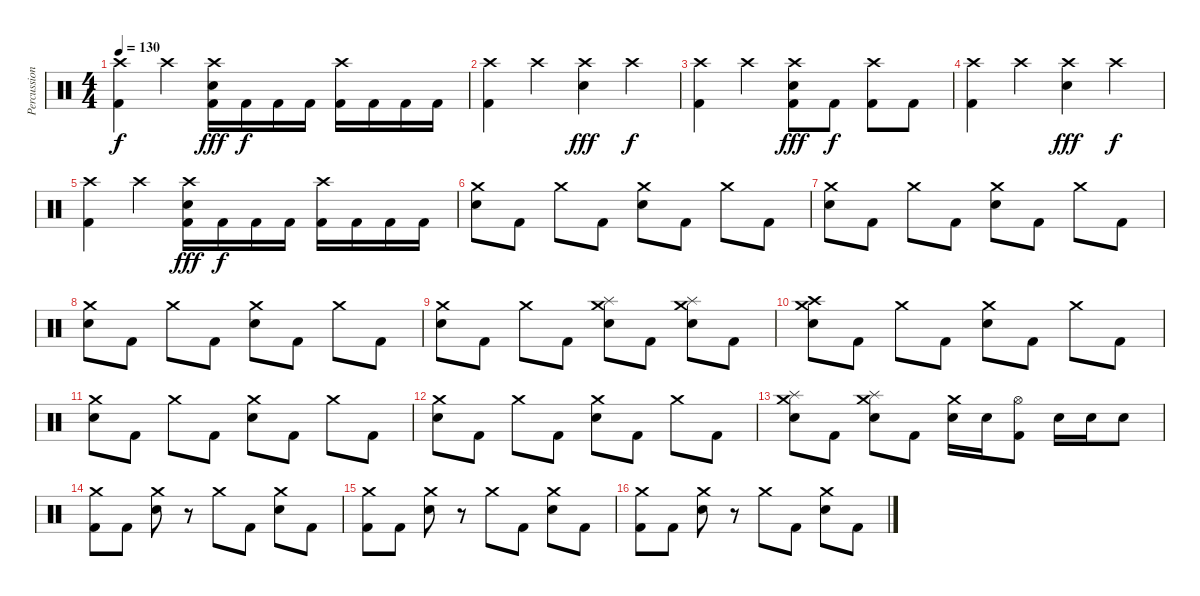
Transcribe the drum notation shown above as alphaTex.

\track ("Percussion" "Percussion") {instrument percussion}
\staff {score}
\articulation defaults
\ts (4 4)
\tempo 130
\clef neutral
\ks c
("Crash high (hit)" "Kick (hit) 2").4{dy f} "Crash high (hit)".4 ("Crash high (hit)" "Electric Snare (hit)" "Kick (hit) 2").16{dy fff} "Kick (hit) 2".16{dy f} "Kick (hit) 2".16 "Kick (hit) 2".16 ("Crash high (hit)" "Kick (hit) 2").16 "Kick (hit) 2".16 "Kick (hit) 2".16 "Kick (hit) 2".16 |
("Crash high (hit)" "Kick (hit) 2").4 "Crash high (hit)".4 ("Crash high (hit)" "Electric Snare (hit)").4{dy fff} "Crash high (hit)".4{dy f} |
("Crash high (hit)" "Kick (hit) 2").4 "Crash high (hit)".4 ("Crash high (hit)" "Electric Snare (hit)" "Kick (hit) 2").8{dy fff} "Kick (hit) 2".8{dy f} ("Crash high (hit)" "Kick (hit) 2").8 "Kick (hit) 2".8 |
("Crash high (hit)" "Kick (hit) 2").4 "Crash high (hit)".4 ("Crash high (hit)" "Electric Snare (hit)").4{dy fff} "Crash high (hit)".4{dy f} |
("Crash high (hit)" "Kick (hit) 2").4 "Crash high (hit)".4 ("Crash high (hit)" "Electric Snare (hit)" "Kick (hit) 2").16{dy fff} "Kick (hit) 2".16{dy f} "Kick (hit) 2".16 "Kick (hit) 2".16 ("Crash high (hit)" "Kick (hit) 2").16 "Kick (hit) 2".16 "Kick (hit) 2".16 "Kick (hit) 2".16 |
("Crash medium (hit)" "Electric Snare (hit)").8 "Kick (hit) 2".8 "Crash medium (hit)".8 "Kick (hit) 2".8 ("Crash medium (hit)" "Electric Snare (hit)").8 "Kick (hit) 2".8 "Crash medium (hit)".8 "Kick (hit) 2".8 |
("Crash medium (hit)" "Electric Snare (hit)").8 "Kick (hit) 2".8 "Crash medium (hit)".8 "Kick (hit) 2".8 ("Crash medium (hit)" "Electric Snare (hit)").8 "Kick (hit) 2".8 "Crash medium (hit)".8 "Kick (hit) 2".8 |
("Crash medium (hit)" "Electric Snare (hit)").8 "Kick (hit) 2".8 "Crash medium (hit)".8 "Kick (hit) 2".8 ("Crash medium (hit)" "Electric Snare (hit)").8 "Kick (hit) 2".8 "Crash medium (hit)".8 "Kick (hit) 2".8 |
("Crash medium (hit)" "Electric Snare (hit)").8 "Kick (hit) 2".8 "Crash medium (hit)".8 "Kick (hit) 2".8 ("Crash medium (hit)" "Splash (hit)" "Electric Snare (hit)").8 "Kick (hit) 2".8 ("Crash medium (hit)" "Splash (hit)" "Electric Snare (hit)").8 "Kick (hit) 2".8 |
("Crash medium (hit)" "Crash high (hit)" "Electric Snare (hit)").8 "Kick (hit) 2".8 "Crash medium (hit)".8 "Kick (hit) 2".8 ("Crash medium (hit)" "Electric Snare (hit)").8 "Kick (hit) 2".8 "Crash medium (hit)".8 "Kick (hit) 2".8 |
("Crash medium (hit)" "Electric Snare (hit)").8 "Kick (hit) 2".8 "Crash medium (hit)".8 "Kick (hit) 2".8 ("Crash medium (hit)" "Electric Snare (hit)").8 "Kick (hit) 2".8 "Crash medium (hit)".8 "Kick (hit) 2".8 |
("Crash medium (hit)" "Electric Snare (hit)").8 "Kick (hit) 2".8 "Crash medium (hit)".8 "Kick (hit) 2".8 ("Crash medium (hit)" "Electric Snare (hit)").8 "Kick (hit) 2".8 "Crash medium (hit)".8 "Kick (hit) 2".8 |
("Crash medium (hit)" "Splash (hit)" "Electric Snare (hit)").8 "Kick (hit) 2".8 ("Crash medium (hit)" "Splash (hit)" "Electric Snare (hit)").8 "Kick (hit) 2".8 ("Crash medium (hit)" "Electric Snare (hit)").16 "Electric Snare (hit)".16 ("Hi-Hat (open)" "Kick (hit) 2").8 "Electric Snare (hit)".16 "Electric Snare (hit)".16 "Electric Snare (hit)".8 |
("Crash medium (hit)" "Kick (hit) 2").8 "Kick (hit) 2".8 ("Crash medium (hit)" "Electric Snare (hit)").8 r.8 "Crash medium (hit)".8 "Kick (hit) 2".8 ("Crash medium (hit)" "Electric Snare (hit)").8 "Kick (hit) 2".8 |
("Crash medium (hit)" "Kick (hit) 2").8 "Kick (hit) 2".8 ("Crash medium (hit)" "Electric Snare (hit)").8 r.8 "Crash medium (hit)".8 "Kick (hit) 2".8 ("Crash medium (hit)" "Electric Snare (hit)").8 "Kick (hit) 2".8 |
("Crash medium (hit)" "Kick (hit) 2").8 "Kick (hit) 2".8 ("Crash medium (hit)" "Electric Snare (hit)").8 r.8 "Crash medium (hit)".8 "Kick (hit) 2".8 ("Crash medium (hit)" "Electric Snare (hit)").8 "Kick (hit) 2".8
